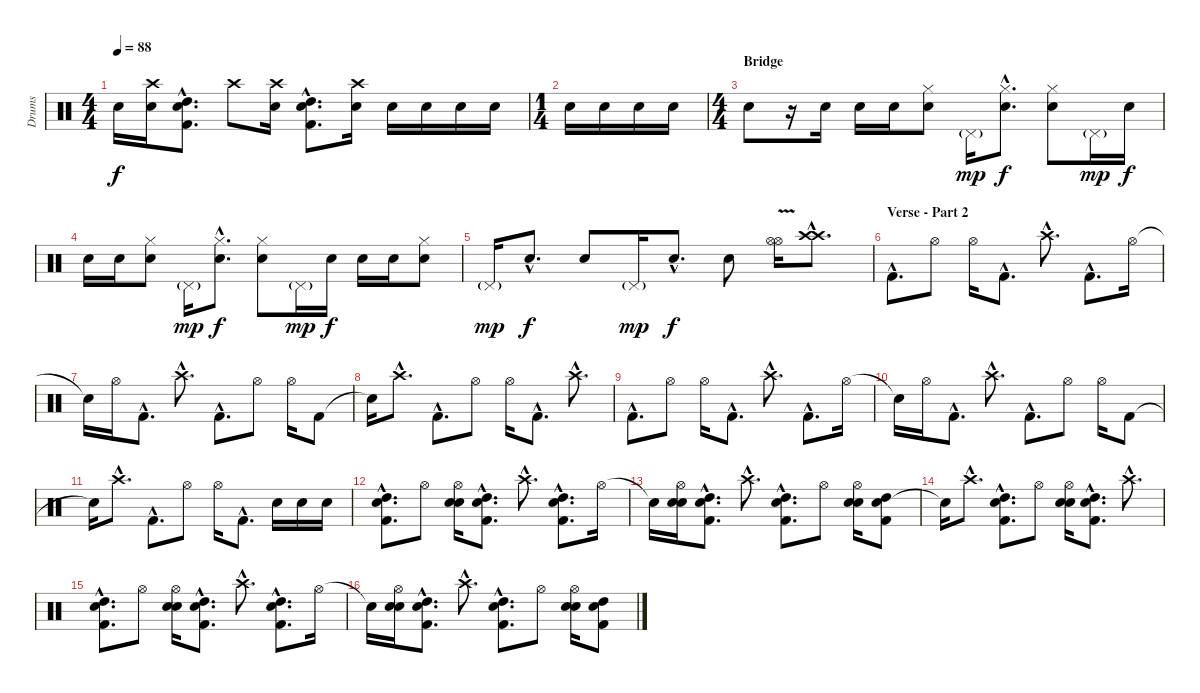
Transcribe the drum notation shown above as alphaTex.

\track ("Drums" "Drums") {instrument percussion}
\staff {score}
\articulation defaults
\ts (4 4)
\tempo 88
\clef neutral
\ks c "Snare (hit)"{t}.16{dy f}
("Crash high (hit)" "Electric Snare (hit)").16 ("High Tom (hit)"{hac} "Electric Snare (hit)"{hac} "Kick (hit) 2"{hac}).8{d} "Crash high (hit)".8 ("Crash high (hit)" "Electric Snare (hit)").16 ("High Tom (hit)"{hac} "Electric Snare (hit)"{hac} "Kick (hit) 2"{hac}).8{d} ("Crash high (hit)" "Electric Snare (hit)").16 "Electric Snare (hit)".16 "Electric Snare (hit)".16 "Electric Snare (hit)".16 "Electric Snare (hit)".16 |
\ts (1 4)
"Electric Snare (hit)".16 "Electric Snare (hit)".16 "Electric Snare (hit)".16 "Electric Snare (hit)".16 |
\ts (4 4)
\section ("" "Bridge")
"Electric Snare (hit)".8 r.16 "Electric Snare (hit)".16 "Electric Snare (hit)".16 "Electric Snare (hit)".16 ("Hi-Hat (closed)" "Electric Snare (hit)").8 "Pedal Hi-Hat (hit)"{g}.16{dy mp} ("Hi-Hat (closed)"{hac} "Electric Snare (hit)"{hac}).8{d dy f} ("Hi-Hat (closed)" "Electric Snare (hit)").8 "Pedal Hi-Hat (hit)"{g}.16{dy mp} "Electric Snare (hit)".16{dy f} |
"Electric Snare (hit)".16 "Electric Snare (hit)".16 ("Hi-Hat (closed)" "Electric Snare (hit)").8 "Pedal Hi-Hat (hit)"{g}.16{dy mp} ("Hi-Hat (closed)"{hac} "Electric Snare (hit)"{hac}).8{d dy f} ("Hi-Hat (closed)" "Electric Snare (hit)").8 "Pedal Hi-Hat (hit)"{g}.16{dy mp} "Electric Snare (hit)".16{dy f} "Electric Snare (hit)".16 "Electric Snare (hit)".16 ("Hi-Hat (closed)" "Electric Snare (hit)").8 |
"Pedal Hi-Hat (hit)"{g}.16{dy mp} "Electric Snare (hit)"{hac}.8{d dy f} "Electric Snare (hit)".8 "Pedal Hi-Hat (hit)"{g}.16{dy mp} "Electric Snare (hit)"{hac}.8{d dy f} "Electric Snare (hit)".8 ("Hi-Hat (open)"{v} "Hi-Hat (open)").16 ("Crash high (hit)"{hac} "Crash high (hit)"{hac}).8{d} |
\section ("" "Verse - Part 2")
"Kick (hit) 2"{hac}.8{d} "Hi-Hat (open)".8 "Hi-Hat (open)".16 "Kick (hit) 2"{hac}.8{d} "Crash high (hit)"{hac}.8{d} "Kick (hit) 2"{hac}.8{d} "Hi-Hat (open)".16 |
"Snare (hit)"{t}.16 "Hi-Hat (open)".16 "Kick (hit) 2"{hac}.8{d} "Crash high (hit)"{hac}.8{d} "Kick (hit) 2"{hac}.8{d} "Hi-Hat (open)".8 "Hi-Hat (open)".16 "Kick (hit) 2".8 |
"Snare (hit)"{t}.16 "Crash high (hit)"{hac}.8{d} "Kick (hit) 2"{hac}.8{d} "Hi-Hat (open)".8 "Hi-Hat (open)".16 "Kick (hit) 2"{hac}.8{d} "Crash high (hit)"{hac}.8{d} |
"Kick (hit) 2"{hac}.8{d} "Hi-Hat (open)".8 "Hi-Hat (open)".16 "Kick (hit) 2"{hac}.8{d} "Crash high (hit)"{hac}.8{d} "Kick (hit) 2"{hac}.8{d} "Hi-Hat (open)".16 |
"Snare (hit)"{t}.16 "Hi-Hat (open)".16 "Kick (hit) 2"{hac}.8{d} "Crash high (hit)"{hac}.8{d} "Kick (hit) 2"{hac}.8{d} "Hi-Hat (open)".8 "Hi-Hat (open)".16 "Kick (hit) 2".8 |
"Snare (hit)"{t}.16 "Crash high (hit)"{hac}.8{d} "Kick (hit) 2"{hac}.8{d} "Hi-Hat (open)".8 "Hi-Hat (open)".16 "Kick (hit) 2"{hac}.8{d} "Electric Snare (hit)".16 "Electric Snare (hit)".16 "Electric Snare (hit)".16 |
("Electric Snare (hit)"{hac} "High Tom (hit)"{hac} "Kick (hit) 2"{hac}).8{d} "Hi-Hat (open)".8 ("Hi-Hat (open)" "Electric Snare (hit)" "Electric Snare (hit)").16 ("Electric Snare (hit)"{hac} "High Tom (hit)"{hac} "Kick (hit) 2"{hac}).8{d} "Crash high (hit)"{hac}.8{d} ("Electric Snare (hit)"{hac} "High Tom (hit)"{hac} "Kick (hit) 2"{hac}).8{d} "Hi-Hat (open)".16 |
"Snare (hit)"{t}.16 ("Hi-Hat (open)" "Electric Snare (hit)" "Electric Snare (hit)").16 ("Electric Snare (hit)"{hac} "High Tom (hit)"{hac} "Kick (hit) 2"{hac}).8{d} "Crash high (hit)"{hac}.8{d} ("Electric Snare (hit)"{hac} "High Tom (hit)"{hac} "Kick (hit) 2"{hac}).8{d} "Hi-Hat (open)".8 ("Hi-Hat (open)" "Electric Snare (hit)" "Electric Snare (hit)").16 ("Electric Snare (hit)" "High Tom (hit)" "Kick (hit) 2").8 |
"Snare (hit)"{t}.16 "Crash high (hit)"{hac}.8{d} ("Electric Snare (hit)"{hac} "High Tom (hit)"{hac} "Kick (hit) 2"{hac}).8{d} "Hi-Hat (open)".8 ("Hi-Hat (open)" "Electric Snare (hit)" "Electric Snare (hit)").16 ("Electric Snare (hit)"{hac} "High Tom (hit)"{hac} "Kick (hit) 2"{hac}).8{d} "Crash high (hit)"{hac}.8{d} |
("Electric Snare (hit)"{hac} "High Tom (hit)"{hac} "Kick (hit) 2"{hac}).8{d} "Hi-Hat (open)".8 ("Hi-Hat (open)" "Electric Snare (hit)" "Electric Snare (hit)").16 ("Electric Snare (hit)"{hac} "High Tom (hit)"{hac} "Kick (hit) 2"{hac}).8{d} "Crash high (hit)"{hac}.8{d} ("Electric Snare (hit)"{hac} "High Tom (hit)"{hac} "Kick (hit) 2"{hac}).8{d} "Hi-Hat (open)".16 |
"Snare (hit)"{t}.16 ("Hi-Hat (open)" "Electric Snare (hit)" "Electric Snare (hit)").16 ("Electric Snare (hit)"{hac} "High Tom (hit)"{hac} "Kick (hit) 2"{hac}).8{d} "Crash high (hit)"{hac}.8{d} ("Electric Snare (hit)"{hac} "High Tom (hit)"{hac} "Kick (hit) 2"{hac}).8{d} "Hi-Hat (open)".8 ("Hi-Hat (open)" "Electric Snare (hit)" "Electric Snare (hit)").16 ("Electric Snare (hit)" "High Tom (hit)" "Kick (hit) 2").8
